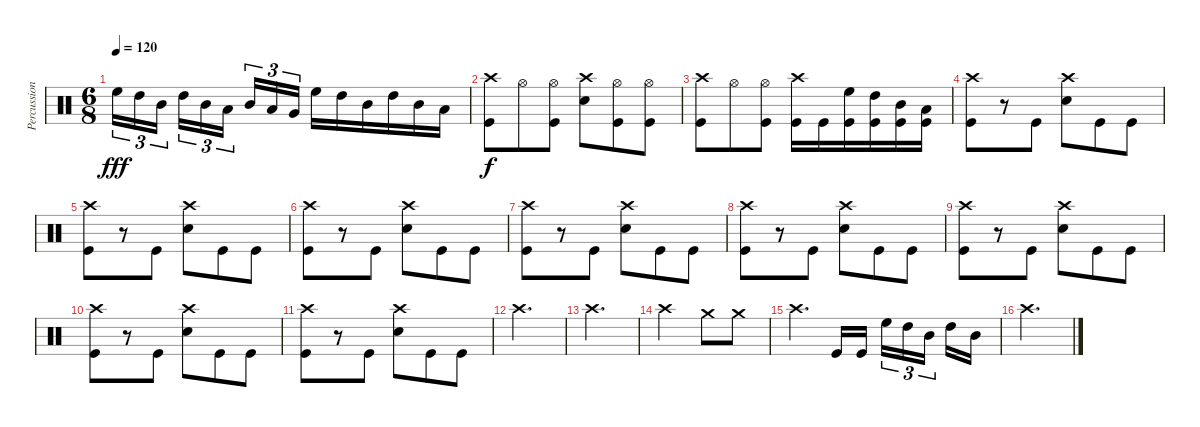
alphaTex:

\track ("Percussion" "Percussion") {instrument percussion}
\staff {score}
\articulation defaults
\ts (6 8)
\tempo 120
\clef neutral
\ks c "High Floor Tom (hit)".16{tu (3 2) dy fff} "High Tom (hit)".16{tu (3 2)} "Mid Tom (hit)".16{tu (3 2) beam splitsecondary} "High Tom (hit)".16{tu (3 2)} "Mid Tom (hit)".16{tu (3 2)} "Low Tom (hit)".16{tu (3 2) beam splitsecondary} "Mid Tom (hit)".16{tu (3 2)} "Low Tom (hit)".16{tu (3 2)} "Very Low Tom (hit)".16{tu (3 2)} "High Floor Tom (hit)".16 "High Tom (hit)".16 "Mid Tom (hit)".16 "High Tom (hit)".16 "Mid Tom (hit)".16 "Low Tom (hit)".16
|
("Crash high (hit)" "Kick (hit)").8{dy f} "Hi-Hat (open)".8 ("Kick (hit)" "Hi-Hat (open)").8 ("Snare (hit) 2" "Crash high (hit)").8 ("Kick (hit)" "Hi-Hat (open)").8 ("Kick (hit)" "Hi-Hat (open)").8 |
("Crash high (hit)" "Kick (hit)").8 "Hi-Hat (open)".8 ("Kick (hit)" "Hi-Hat (open)").8 ("Kick (hit)" "Crash high (hit)").16 "Kick (hit)".16 ("Kick (hit)" "High Floor Tom (hit)").16 ("Kick (hit)" "High Tom (hit)").16 ("Kick (hit)" "Mid Tom (hit)").16 ("Kick (hit)" "Low Tom (hit)").16 |
("Crash high (hit)" "Kick (hit)").8 r.8 "Kick (hit)".8 ("Snare (hit) 2" "Crash high (hit)").8 "Kick (hit)".8 "Kick (hit)".8 |
("Crash high (hit)" "Kick (hit)").8 r.8 "Kick (hit)".8 ("Snare (hit) 2" "Crash high (hit)").8 "Kick (hit)".8 "Kick (hit)".8 |
("Crash high (hit)" "Kick (hit)").8 r.8 "Kick (hit)".8 ("Snare (hit) 2" "Crash high (hit)").8 "Kick (hit)".8 "Kick (hit)".8 |
("Crash high (hit)" "Kick (hit)").8 r.8 "Kick (hit)".8 ("Snare (hit) 2" "Crash high (hit)").8 "Kick (hit)".8 "Kick (hit)".8 |
("Crash high (hit)" "Kick (hit)").8 r.8 "Kick (hit)".8 ("Snare (hit) 2" "Crash high (hit)").8 "Kick (hit)".8 "Kick (hit)".8 |
("Crash high (hit)" "Kick (hit)").8 r.8 "Kick (hit)".8 ("Snare (hit) 2" "Crash high (hit)").8 "Kick (hit)".8 "Kick (hit)".8 |
("Crash high (hit)" "Kick (hit)").8 r.8 "Kick (hit)".8 ("Snare (hit) 2" "Crash high (hit)").8 "Kick (hit)".8 "Kick (hit)".8 |
("Crash high (hit)" "Kick (hit)").8 r.8 "Kick (hit)".8 ("Snare (hit) 2" "Crash high (hit)").8 "Kick (hit)".8 "Kick (hit)".8 |
"Crash high (hit)".2{d} |
"Crash high (hit)".2{d} |
"Crash high (hit)".2 "Crash medium (hit)".8 "Crash medium (hit)".8 |
"Crash high (hit)".4{d} "Kick (hit)".16 "Kick (hit)".16{beam splitsecondary} "High Floor Tom (hit)".16{tu (3 2)} "High Tom (hit)".16{tu (3 2)} "Mid Tom (hit)".16{tu (3 2) beam splitsecondary} "High Tom (hit)".16 "Mid Tom (hit)".16 |
"Crash high (hit)".2{d}
